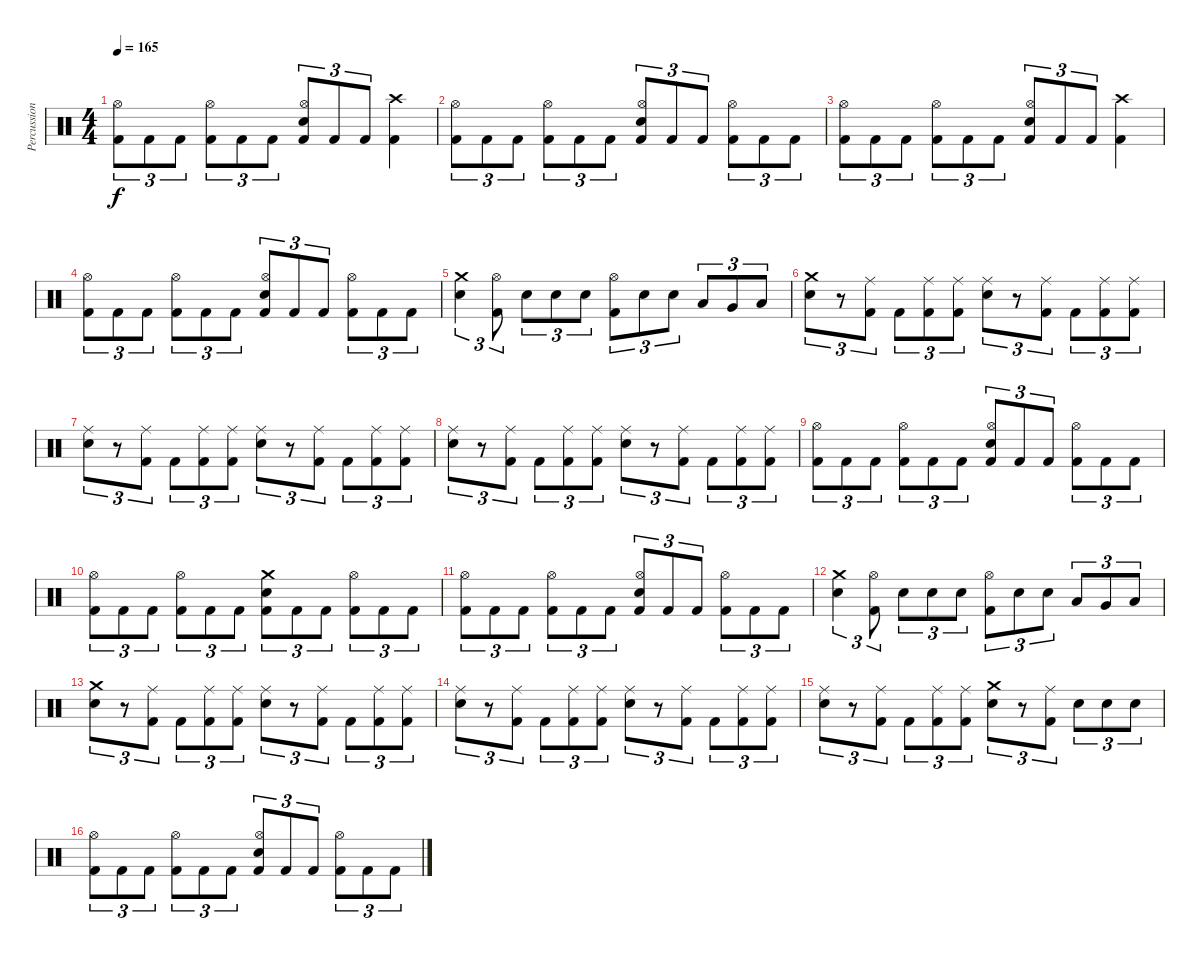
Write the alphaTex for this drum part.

\track ("Percussion" "Percussion") {instrument percussion}
\staff {score}
\articulation defaults
\ts (4 4)
\tempo 165
\clef neutral
\ks c
("Kick (hit) 2" "Hi-Hat (open)").8{tu (3 2) dy f} "Kick (hit) 2".8{tu (3 2)} "Kick (hit) 2".8{tu (3 2)} ("Kick (hit) 2" "Hi-Hat (open)").8{tu (3 2)} "Kick (hit) 2".8{tu (3 2)} "Kick (hit) 2".8{tu (3 2)} ("Kick (hit) 2" "Hi-Hat (open)" "Snare (hit) 2").8{tu (3 2)} "Kick (hit) 2".8{tu (3 2)} "Kick (hit) 2".8{tu (3 2)} ("Kick (hit) 2" "Crash high (hit)").4 |
("Kick (hit) 2" "Hi-Hat (open)").8{tu (3 2)} "Kick (hit) 2".8{tu (3 2)} "Kick (hit) 2".8{tu (3 2)} ("Kick (hit) 2" "Hi-Hat (open)").8{tu (3 2)} "Kick (hit) 2".8{tu (3 2)} "Kick (hit) 2".8{tu (3 2)} ("Kick (hit) 2" "Hi-Hat (open)" "Snare (hit) 2").8{tu (3 2)} "Kick (hit) 2".8{tu (3 2)} "Kick (hit) 2".8{tu (3 2)} ("Kick (hit) 2" "Hi-Hat (open)").8{tu (3 2)} "Kick (hit) 2".8{tu (3 2)} "Kick (hit) 2".8{tu (3 2)} |
("Kick (hit) 2" "Hi-Hat (open)").8{tu (3 2)} "Kick (hit) 2".8{tu (3 2)} "Kick (hit) 2".8{tu (3 2)} ("Kick (hit) 2" "Hi-Hat (open)").8{tu (3 2)} "Kick (hit) 2".8{tu (3 2)} "Kick (hit) 2".8{tu (3 2)} ("Kick (hit) 2" "Hi-Hat (open)" "Snare (hit) 2").8{tu (3 2)} "Kick (hit) 2".8{tu (3 2)} "Kick (hit) 2".8{tu (3 2)} ("Kick (hit) 2" "Crash high (hit)").4 |
("Kick (hit) 2" "Hi-Hat (open)").8{tu (3 2)} "Kick (hit) 2".8{tu (3 2)} "Kick (hit) 2".8{tu (3 2)} ("Kick (hit) 2" "Hi-Hat (open)").8{tu (3 2)} "Kick (hit) 2".8{tu (3 2)} "Kick (hit) 2".8{tu (3 2)} ("Kick (hit) 2" "Hi-Hat (open)" "Snare (hit) 2").8{tu (3 2)} "Kick (hit) 2".8{tu (3 2)} "Kick (hit) 2".8{tu (3 2)} ("Kick (hit) 2" "Hi-Hat (open)").8{tu (3 2)} "Kick (hit) 2".8{tu (3 2)} "Kick (hit) 2".8{tu (3 2)} |
("Snare (hit) 2" "Crash medium (hit)").4{tu (3 2)} ("Kick (hit) 2" "Hi-Hat (open)").8{tu (3 2)} "Snare (hit) 2".8{tu (3 2)} "Snare (hit) 2".8{tu (3 2)} "Snare (hit) 2".8{tu (3 2)} ("Kick (hit) 2" "Hi-Hat (open)").8{tu (3 2)} "Snare (hit) 2".8{tu (3 2)} "Snare (hit) 2".8{tu (3 2)} "Low Tom (hit)".8{tu (3 2)} "Very Low Tom (hit)".8{tu (3 2)} "Low Floor Tom (hit)".8{tu (3 2)} |
("Snare (hit) 2" "Crash medium (hit)").8{tu (3 2)} r.8{tu (3 2)} ("Kick (hit) 2" "Ride (middle)").8{tu (3 2)} "Kick (hit) 2".8{tu (3 2)} ("Kick (hit) 2" "Ride (middle)").8{tu (3 2)} ("Kick (hit) 2" "Ride (middle)").8{tu (3 2)} ("Snare (hit) 2" "Ride (middle)").8{tu (3 2)} r.8{tu (3 2)} ("Kick (hit) 2" "Ride (middle)").8{tu (3 2)} "Kick (hit) 2".8{tu (3 2)} ("Kick (hit) 2" "Ride (middle)").8{tu (3 2)} ("Kick (hit) 2" "Ride (middle)").8{tu (3 2)} |
("Snare (hit) 2" "Ride (middle)").8{tu (3 2)} r.8{tu (3 2)} ("Kick (hit) 2" "Ride (middle)").8{tu (3 2)} "Kick (hit) 2".8{tu (3 2)} ("Kick (hit) 2" "Ride (middle)").8{tu (3 2)} ("Kick (hit) 2" "Ride (middle)").8{tu (3 2)} ("Snare (hit) 2" "Ride (middle)").8{tu (3 2)} r.8{tu (3 2)} ("Kick (hit) 2" "Ride (middle)").8{tu (3 2)} "Kick (hit) 2".8{tu (3 2)} ("Kick (hit) 2" "Ride (middle)").8{tu (3 2)} ("Kick (hit) 2" "Ride (middle)").8{tu (3 2)} |
("Snare (hit) 2" "Ride (middle)").8{tu (3 2)} r.8{tu (3 2)} ("Kick (hit) 2" "Ride (middle)").8{tu (3 2)} "Kick (hit) 2".8{tu (3 2)} ("Kick (hit) 2" "Ride (middle)").8{tu (3 2)} ("Kick (hit) 2" "Ride (middle)").8{tu (3 2)} ("Snare (hit) 2" "Ride (middle)").8{tu (3 2)} r.8{tu (3 2)} ("Kick (hit) 2" "Ride (middle)").8{tu (3 2)} "Kick (hit) 2".8{tu (3 2)} ("Kick (hit) 2" "Ride (middle)").8{tu (3 2)} ("Kick (hit) 2" "Ride (middle)").8{tu (3 2)} |
("Kick (hit) 2" "Hi-Hat (open)").8{tu (3 2)} "Kick (hit) 2".8{tu (3 2)} "Kick (hit) 2".8{tu (3 2)} ("Kick (hit) 2" "Hi-Hat (open)").8{tu (3 2)} "Kick (hit) 2".8{tu (3 2)} "Kick (hit) 2".8{tu (3 2)} ("Kick (hit) 2" "Hi-Hat (open)" "Snare (hit) 2").8{tu (3 2)} "Kick (hit) 2".8{tu (3 2)} "Kick (hit) 2".8{tu (3 2)} ("Kick (hit) 2" "Hi-Hat (open)").8{tu (3 2)} "Kick (hit) 2".8{tu (3 2)} "Kick (hit) 2".8{tu (3 2)} |
("Kick (hit) 2" "Hi-Hat (open)").8{tu (3 2)} "Kick (hit) 2".8{tu (3 2)} "Kick (hit) 2".8{tu (3 2)} ("Kick (hit) 2" "Hi-Hat (open)").8{tu (3 2)} "Kick (hit) 2".8{tu (3 2)} "Kick (hit) 2".8{tu (3 2)} ("Kick (hit) 2" "Crash medium (hit)" "Snare (hit) 2").8{tu (3 2)} "Kick (hit) 2".8{tu (3 2)} "Kick (hit) 2".8{tu (3 2)} ("Kick (hit) 2" "Hi-Hat (open)").8{tu (3 2)} "Kick (hit) 2".8{tu (3 2)} "Kick (hit) 2".8{tu (3 2)} |
("Kick (hit) 2" "Hi-Hat (open)").8{tu (3 2)} "Kick (hit) 2".8{tu (3 2)} "Kick (hit) 2".8{tu (3 2)} ("Kick (hit) 2" "Hi-Hat (open)").8{tu (3 2)} "Kick (hit) 2".8{tu (3 2)} "Kick (hit) 2".8{tu (3 2)} ("Kick (hit) 2" "Hi-Hat (open)" "Snare (hit) 2").8{tu (3 2)} "Kick (hit) 2".8{tu (3 2)} "Kick (hit) 2".8{tu (3 2)} ("Kick (hit) 2" "Hi-Hat (open)").8{tu (3 2)} "Kick (hit) 2".8{tu (3 2)} "Kick (hit) 2".8{tu (3 2)} |
("Snare (hit) 2" "Crash medium (hit)").4{tu (3 2)} ("Kick (hit) 2" "Hi-Hat (open)").8{tu (3 2)} "Snare (hit) 2".8{tu (3 2)} "Snare (hit) 2".8{tu (3 2)} "Snare (hit) 2".8{tu (3 2)} ("Kick (hit) 2" "Hi-Hat (open)").8{tu (3 2)} "Snare (hit) 2".8{tu (3 2)} "Snare (hit) 2".8{tu (3 2)} "Low Tom (hit)".8{tu (3 2)} "Very Low Tom (hit)".8{tu (3 2)} "Low Floor Tom (hit)".8{tu (3 2)} |
("Snare (hit) 2" "Crash medium (hit)").8{tu (3 2)} r.8{tu (3 2)} ("Kick (hit) 2" "Ride (middle)").8{tu (3 2)} "Kick (hit) 2".8{tu (3 2)} ("Kick (hit) 2" "Ride (middle)").8{tu (3 2)} ("Kick (hit) 2" "Ride (middle)").8{tu (3 2)} ("Snare (hit) 2" "Ride (middle)").8{tu (3 2)} r.8{tu (3 2)} ("Kick (hit) 2" "Ride (middle)").8{tu (3 2)} "Kick (hit) 2".8{tu (3 2)} ("Kick (hit) 2" "Ride (middle)").8{tu (3 2)} ("Kick (hit) 2" "Ride (middle)").8{tu (3 2)} |
("Snare (hit) 2" "Ride (middle)").8{tu (3 2)} r.8{tu (3 2)} ("Kick (hit) 2" "Ride (middle)").8{tu (3 2)} "Kick (hit) 2".8{tu (3 2)} ("Kick (hit) 2" "Ride (middle)").8{tu (3 2)} ("Kick (hit) 2" "Ride (middle)").8{tu (3 2)} ("Snare (hit) 2" "Ride (middle)").8{tu (3 2)} r.8{tu (3 2)} ("Kick (hit) 2" "Ride (middle)").8{tu (3 2)} "Kick (hit) 2".8{tu (3 2)} ("Kick (hit) 2" "Ride (middle)").8{tu (3 2)} ("Kick (hit) 2" "Ride (middle)").8{tu (3 2)} |
("Snare (hit) 2" "Ride (middle)").8{tu (3 2)} r.8{tu (3 2)} ("Kick (hit) 2" "Ride (middle)").8{tu (3 2)} "Kick (hit) 2".8{tu (3 2)} ("Kick (hit) 2" "Ride (middle)").8{tu (3 2)} ("Kick (hit) 2" "Ride (middle)").8{tu (3 2)} ("Snare (hit) 2" "Crash medium (hit)").8{tu (3 2)} r.8{tu (3 2)} ("Kick (hit) 2" "Ride (middle)").8{tu (3 2)} "Snare (hit) 2".8{tu (3 2)} "Snare (hit) 2".8{tu (3 2)} "Snare (hit) 2".8{tu (3 2)} |
("Kick (hit) 2" "Hi-Hat (open)").8{tu (3 2)} "Kick (hit) 2".8{tu (3 2)} "Kick (hit) 2".8{tu (3 2)} ("Kick (hit) 2" "Hi-Hat (open)").8{tu (3 2)} "Kick (hit) 2".8{tu (3 2)} "Kick (hit) 2".8{tu (3 2)} ("Kick (hit) 2" "Hi-Hat (open)" "Snare (hit) 2").8{tu (3 2)} "Kick (hit) 2".8{tu (3 2)} "Kick (hit) 2".8{tu (3 2)} ("Kick (hit) 2" "Hi-Hat (open)").8{tu (3 2)} "Kick (hit) 2".8{tu (3 2)} "Kick (hit) 2".8{tu (3 2)}
